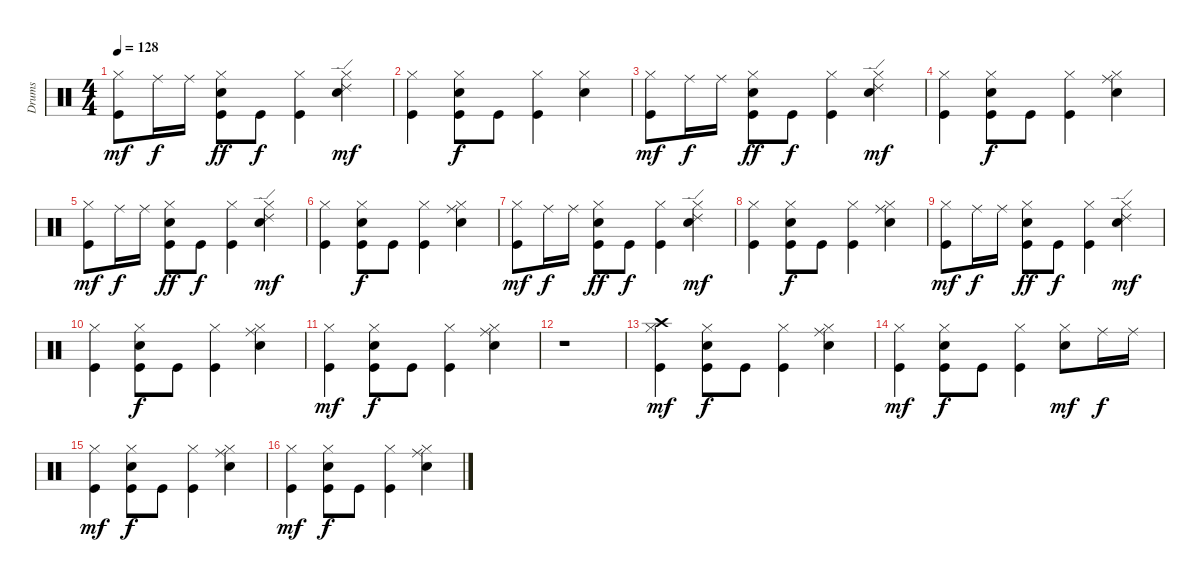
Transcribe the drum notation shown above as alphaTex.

\track ("Drums               " "Drums     ") {instrument percussion}
\staff {score}
\articulation defaults
\ts (4 4)
\tempo 128
\clef neutral
\ks c
("Hi-Hat (closed)" "Kick (hit)").8{dy mf} "Ride (middle)".16{dy f} "Ride (middle)".16 ("Hi-Hat (closed)" "Electric Snare (hit)" "Kick (hit)").8{dy ff} "Kick (hit)".8{dy f} ("Hi-Hat (closed)" "Kick (hit)").4 ("Ride (edge) 2" "Hi-Hat (closed)" "Electric Snare (hit)").4{dy mf} |
("Hi-Hat (closed)" "Kick (hit)").4 ("Hi-Hat (closed)" "Electric Snare (hit)" "Kick (hit)").8{dy f} "Kick (hit)".8 ("Hi-Hat (closed)" "Kick (hit)").4 ("Hi-Hat (closed)" "Electric Snare (hit)").4 |
("Hi-Hat (closed)" "Kick (hit)").8{dy mf} "Ride (middle)".16{dy f} "Ride (middle)".16 ("Hi-Hat (closed)" "Electric Snare (hit)" "Kick (hit)").8{dy ff} "Kick (hit)".8{dy f} ("Hi-Hat (closed)" "Kick (hit)").4 ("Ride (edge) 2" "Hi-Hat (closed)" "Electric Snare (hit)").4{dy mf} |
("Hi-Hat (closed)" "Kick (hit)").4 ("Hi-Hat (closed)" "Electric Snare (hit)" "Kick (hit)").8{dy f} "Kick (hit)".8 ("Hi-Hat (closed)" "Kick (hit)").4 ("Ride (middle)" "Hi-Hat (closed)" "Electric Snare (hit)").4 |
("Hi-Hat (closed)" "Kick (hit)").8{dy mf} "Ride (middle)".16{dy f} "Ride (middle)".16 ("Hi-Hat (closed)" "Electric Snare (hit)" "Kick (hit)").8{dy ff} "Kick (hit)".8{dy f} ("Hi-Hat (closed)" "Kick (hit)").4 ("Ride (edge) 2" "Hi-Hat (closed)" "Electric Snare (hit)").4{dy mf} |
("Hi-Hat (closed)" "Kick (hit)").4 ("Hi-Hat (closed)" "Electric Snare (hit)" "Kick (hit)").8{dy f} "Kick (hit)".8 ("Hi-Hat (closed)" "Kick (hit)").4 ("Ride (middle)" "Hi-Hat (closed)" "Electric Snare (hit)").4 |
("Hi-Hat (closed)" "Kick (hit)").8{dy mf} "Ride (middle)".16{dy f} "Ride (middle)".16 ("Hi-Hat (closed)" "Electric Snare (hit)" "Kick (hit)").8{dy ff} "Kick (hit)".8{dy f} ("Hi-Hat (closed)" "Kick (hit)").4 ("Ride (edge) 2" "Hi-Hat (closed)" "Electric Snare (hit)").4{dy mf} |
("Hi-Hat (closed)" "Kick (hit)").4 ("Hi-Hat (closed)" "Electric Snare (hit)" "Kick (hit)").8{dy f} "Kick (hit)".8 ("Hi-Hat (closed)" "Kick (hit)").4 ("Ride (middle)" "Hi-Hat (closed)" "Electric Snare (hit)").4 |
("Hi-Hat (closed)" "Kick (hit)").8{dy mf} "Ride (middle)".16{dy f} "Ride (middle)".16 ("Hi-Hat (closed)" "Electric Snare (hit)" "Kick (hit)").8{dy ff} "Kick (hit)".8{dy f} ("Hi-Hat (closed)" "Kick (hit)").4 ("Ride (edge) 2" "Hi-Hat (closed)" "Electric Snare (hit)").4{dy mf} |
("Hi-Hat (closed)" "Kick (hit)").4 ("Hi-Hat (closed)" "Electric Snare (hit)" "Kick (hit)").8{dy f} "Kick (hit)".8 ("Hi-Hat (closed)" "Kick (hit)").4 ("Ride (middle)" "Hi-Hat (closed)" "Electric Snare (hit)").4 |
("Hi-Hat (closed)" "Kick (hit)").4{dy mf} ("Hi-Hat (closed)" "Electric Snare (hit)" "Kick (hit)").8{dy f} "Kick (hit)".8 ("Hi-Hat (closed)" "Kick (hit)").4 ("Ride (middle)" "Hi-Hat (closed)" "Electric Snare (hit)").4 |
r.1 |
("Crash high (hit)" "Hi-Hat (closed)" "Kick (hit)").4{dy mf} ("Hi-Hat (closed)" "Electric Snare (hit)" "Kick (hit)").8{dy f} "Kick (hit)".8 ("Hi-Hat (closed)" "Kick (hit)").4 ("Ride (middle)" "Hi-Hat (closed)" "Electric Snare (hit)").4 |
("Hi-Hat (closed)" "Kick (hit)").4{dy mf} ("Hi-Hat (closed)" "Electric Snare (hit)" "Kick (hit)").8{dy f} "Kick (hit)".8 ("Hi-Hat (closed)" "Kick (hit)").4 ("Hi-Hat (closed)" "Electric Snare (hit)").8{dy mf} "Ride (middle)".16{dy f} "Ride (middle)".16 |
("Hi-Hat (closed)" "Kick (hit)").4{dy mf} ("Hi-Hat (closed)" "Electric Snare (hit)" "Kick (hit)").8{dy f} "Kick (hit)".8 ("Hi-Hat (closed)" "Kick (hit)").4 ("Ride (middle)" "Hi-Hat (closed)" "Electric Snare (hit)").4 |
("Hi-Hat (closed)" "Kick (hit)").4{dy mf} ("Hi-Hat (closed)" "Electric Snare (hit)" "Kick (hit)").8{dy f} "Kick (hit)".8 ("Hi-Hat (closed)" "Kick (hit)").4 ("Ride (middle)" "Hi-Hat (closed)" "Electric Snare (hit)").4
